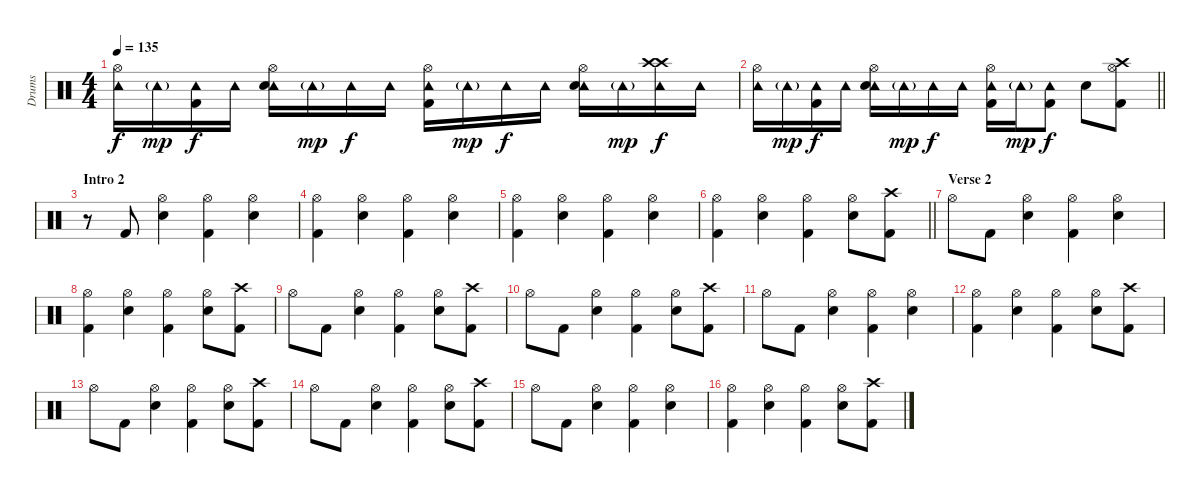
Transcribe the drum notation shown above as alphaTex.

\track ("Drums" "Drums") {instrument percussion}
\staff {score}
\articulation defaults
\ts (4 4)
\tempo 135
\clef neutral
\ks c
("Hi-Hat (open)" "Tambourine (hit)").16{dy f} "Tambourine (hit)"{g}.16{dy mp} ("Tambourine (hit)" "Kick (hit) 2").16{dy f} "Tambourine (hit)".16 ("Hi-Hat (open)" "Tambourine (hit)" "Electric Snare (hit)").16 "Tambourine (hit)"{g}.16{dy mp} "Tambourine (hit)".16{dy f} "Tambourine (hit)".16 ("Hi-Hat (open)" "Tambourine (hit)" "Kick (hit) 2").16 "Tambourine (hit)"{g}.16{dy mp} "Tambourine (hit)".16{dy f} "Tambourine (hit)".16 ("Hi-Hat (open)" "Tambourine (hit)" "Electric Snare (hit)").16 "Tambourine (hit)"{g}.16{dy mp} ("Tambourine (hit)" "Crash high (hit)" "Crash high (hit)").16{dy f} "Tambourine (hit)".16 |
\barLineRight lightlight
("Hi-Hat (open)" "Tambourine (hit)").16 "Tambourine (hit)"{g}.16{dy mp} ("Tambourine (hit)" "Kick (hit) 2").16{dy f} "Tambourine (hit)".16 ("Hi-Hat (open)" "Tambourine (hit)" "Electric Snare (hit)").16 "Tambourine (hit)"{g}.16{dy mp} "Tambourine (hit)".16{dy f} "Tambourine (hit)".16 ("Hi-Hat (open)" "Tambourine (hit)" "Kick (hit) 2").16 "Tambourine (hit)"{g}.16{dy mp} ("Tambourine (hit)" "Kick (hit) 2").8{dy f} "Electric Snare (hit)".8 ("Hi-Hat (open)" "Kick (hit) 2" "Crash high (hit)").8 |
\section ("" "Intro 2")
r.8 "Kick (hit) 2".8 ("Hi-Hat (open)" "Electric Snare (hit)").4 ("Hi-Hat (open)" "Kick (hit) 2").4 ("Hi-Hat (open)" "Electric Snare (hit)").4 |
("Hi-Hat (open)" "Kick (hit) 2").4 ("Hi-Hat (open)" "Electric Snare (hit)").4 ("Hi-Hat (open)" "Kick (hit) 2").4 ("Hi-Hat (open)" "Electric Snare (hit)").4 |
("Hi-Hat (open)" "Kick (hit) 2").4 ("Hi-Hat (open)" "Electric Snare (hit)").4 ("Hi-Hat (open)" "Kick (hit) 2").4 ("Hi-Hat (open)" "Electric Snare (hit)").4 |
\barLineRight lightlight
("Hi-Hat (open)" "Kick (hit) 2").4 ("Hi-Hat (open)" "Electric Snare (hit)").4 ("Hi-Hat (open)" "Kick (hit) 2").4 ("Hi-Hat (open)" "Electric Snare (hit)").8 ("Kick (hit) 2" "Crash high (hit)").8 |
\section ("" "Verse 2")
"Hi-Hat (open)".8 "Kick (hit) 2".8 ("Hi-Hat (open)" "Electric Snare (hit)").4 ("Hi-Hat (open)" "Kick (hit) 2").4 ("Hi-Hat (open)" "Electric Snare (hit)").4 |
("Hi-Hat (open)" "Kick (hit) 2").4 ("Hi-Hat (open)" "Electric Snare (hit)").4 ("Hi-Hat (open)" "Kick (hit) 2").4 ("Hi-Hat (open)" "Electric Snare (hit)").8 ("Kick (hit) 2" "Crash high (hit)").8 |
"Hi-Hat (open)".8 "Kick (hit) 2".8 ("Hi-Hat (open)" "Electric Snare (hit)").4 ("Hi-Hat (open)" "Kick (hit) 2").4 ("Hi-Hat (open)" "Electric Snare (hit)").8 ("Kick (hit) 2" "Crash high (hit)").8 |
"Hi-Hat (open)".8 "Kick (hit) 2".8 ("Hi-Hat (open)" "Electric Snare (hit)").4 ("Hi-Hat (open)" "Kick (hit) 2").4 ("Hi-Hat (open)" "Electric Snare (hit)").8 ("Kick (hit) 2" "Crash high (hit)").8 |
"Hi-Hat (open)".8 "Kick (hit) 2".8 ("Hi-Hat (open)" "Electric Snare (hit)").4 ("Hi-Hat (open)" "Kick (hit) 2").4 ("Hi-Hat (open)" "Electric Snare (hit)").4 |
("Hi-Hat (open)" "Kick (hit) 2").4 ("Hi-Hat (open)" "Electric Snare (hit)").4 ("Hi-Hat (open)" "Kick (hit) 2").4 ("Hi-Hat (open)" "Electric Snare (hit)").8 ("Kick (hit) 2" "Crash high (hit)").8 |
"Hi-Hat (open)".8 "Kick (hit) 2".8 ("Hi-Hat (open)" "Electric Snare (hit)").4 ("Hi-Hat (open)" "Kick (hit) 2").4 ("Hi-Hat (open)" "Electric Snare (hit)").8 ("Kick (hit) 2" "Crash high (hit)").8 |
"Hi-Hat (open)".8 "Kick (hit) 2".8 ("Hi-Hat (open)" "Electric Snare (hit)").4 ("Hi-Hat (open)" "Kick (hit) 2").4 ("Hi-Hat (open)" "Electric Snare (hit)").8 ("Kick (hit) 2" "Crash high (hit)").8 |
"Hi-Hat (open)".8 "Kick (hit) 2".8 ("Hi-Hat (open)" "Electric Snare (hit)").4 ("Hi-Hat (open)" "Kick (hit) 2").4 ("Hi-Hat (open)" "Electric Snare (hit)").4 |
("Hi-Hat (open)" "Kick (hit) 2").4 ("Hi-Hat (open)" "Electric Snare (hit)").4 ("Hi-Hat (open)" "Kick (hit) 2").4 ("Hi-Hat (open)" "Electric Snare (hit)").8 ("Kick (hit) 2" "Crash high (hit)").8
